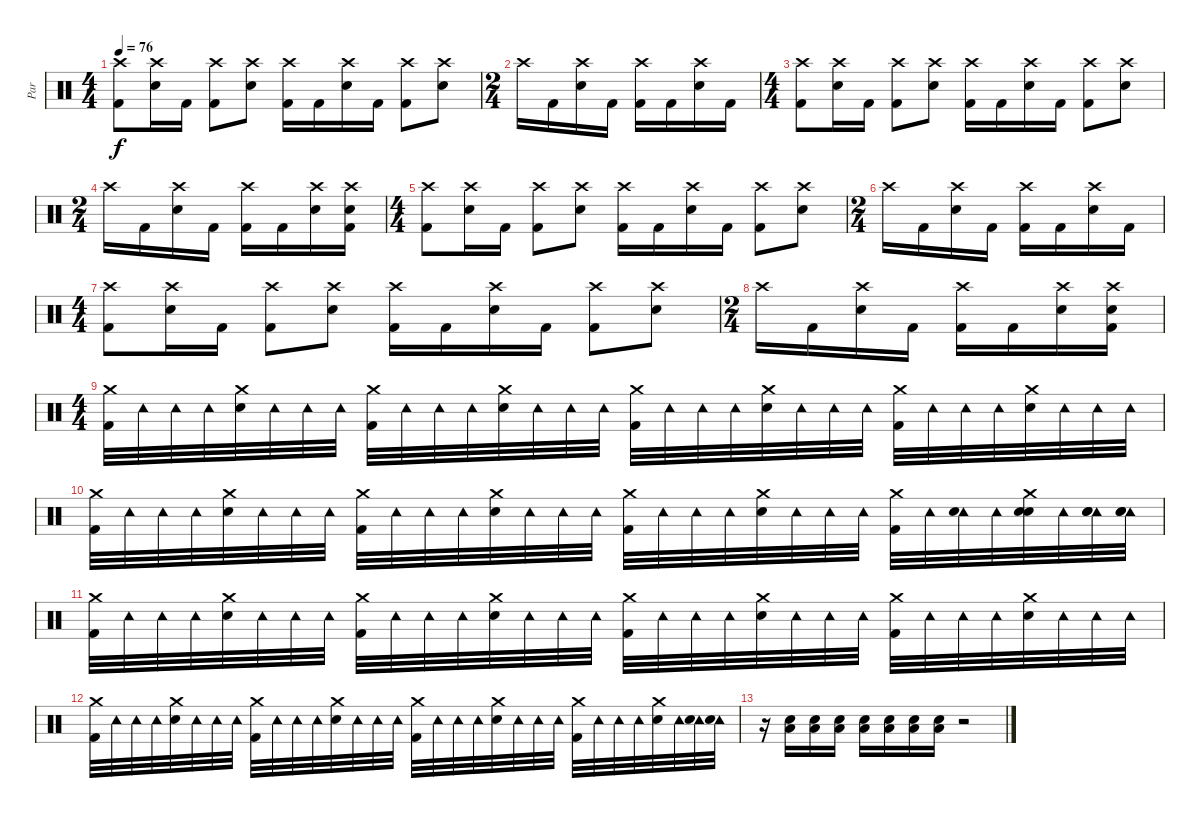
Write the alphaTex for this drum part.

\track ("Par" "Par") {instrument percussion}
\staff {score}
\articulation defaults
\ts (4 4)
\tempo 76
\clef neutral
\ks c
("Crash high (hit)" "Kick (hit) 2").8{dy f} ("Crash high (hit)" "Snare (hit) 2").16 "Kick (hit) 2".16 ("Crash high (hit)" "Kick (hit) 2").8 ("Crash high (hit)" "Snare (hit) 2").8 ("Crash high (hit)" "Kick (hit) 2").16 "Kick (hit) 2".16 ("Crash high (hit)" "Snare (hit) 2").16 "Kick (hit) 2".16 ("Crash high (hit)" "Kick (hit) 2").8 ("Crash high (hit)" "Snare (hit) 2").8 |
\ts (2 4)
"Crash high (hit)".16 "Kick (hit) 2".16 ("Crash high (hit)" "Snare (hit) 2").16 "Kick (hit) 2".16 ("Crash high (hit)" "Kick (hit) 2").16 "Kick (hit) 2".16 ("Crash high (hit)" "Snare (hit) 2").16 "Kick (hit) 2".16 |
\ts (4 4)
("Crash high (hit)" "Kick (hit) 2").8 ("Crash high (hit)" "Snare (hit) 2").16 "Kick (hit) 2".16 ("Crash high (hit)" "Kick (hit) 2").8 ("Crash high (hit)" "Snare (hit) 2").8 ("Crash high (hit)" "Kick (hit) 2").16 "Kick (hit) 2".16 ("Crash high (hit)" "Snare (hit) 2").16 "Kick (hit) 2".16 ("Crash high (hit)" "Kick (hit) 2").8 ("Crash high (hit)" "Snare (hit) 2").8 |
\ts (2 4)
"Crash high (hit)".16 "Kick (hit) 2".16 ("Crash high (hit)" "Snare (hit) 2").16 "Kick (hit) 2".16 ("Crash high (hit)" "Kick (hit) 2").16 "Kick (hit) 2".16 ("Crash high (hit)" "Snare (hit) 2").16 ("Crash high (hit)" "Snare (hit) 2" "Kick (hit) 2").16 |
\ts (4 4)
("Crash high (hit)" "Kick (hit) 2").8 ("Crash high (hit)" "Snare (hit) 2").16 "Kick (hit) 2".16 ("Crash high (hit)" "Kick (hit) 2").8 ("Crash high (hit)" "Snare (hit) 2").8 ("Crash high (hit)" "Kick (hit) 2").16 "Kick (hit) 2".16 ("Crash high (hit)" "Snare (hit) 2").16 "Kick (hit) 2".16 ("Crash high (hit)" "Kick (hit) 2").8 ("Crash high (hit)" "Snare (hit) 2").8 |
\ts (2 4)
"Crash high (hit)".16 "Kick (hit) 2".16 ("Crash high (hit)" "Snare (hit) 2").16 "Kick (hit) 2".16 ("Crash high (hit)" "Kick (hit) 2").16 "Kick (hit) 2".16 ("Crash high (hit)" "Snare (hit) 2").16 "Kick (hit) 2".16 |
\ts (4 4)
("Crash high (hit)" "Kick (hit) 2").8 ("Crash high (hit)" "Snare (hit) 2").16 "Kick (hit) 2".16 ("Crash high (hit)" "Kick (hit) 2").8 ("Crash high (hit)" "Snare (hit) 2").8 ("Crash high (hit)" "Kick (hit) 2").16 "Kick (hit) 2".16 ("Crash high (hit)" "Snare (hit) 2").16 "Kick (hit) 2".16 ("Crash high (hit)" "Kick (hit) 2").8 ("Crash high (hit)" "Snare (hit) 2").8 |
\ts (2 4)
"Crash high (hit)".16 "Kick (hit) 2".16 ("Crash high (hit)" "Snare (hit) 2").16 "Kick (hit) 2".16 ("Crash high (hit)" "Kick (hit) 2").16 "Kick (hit) 2".16 ("Crash high (hit)" "Snare (hit) 2").16 ("Crash high (hit)" "Snare (hit) 2" "Kick (hit) 2").16 |
\ts (4 4)
("Crash medium (hit)" "Kick (hit) 2").32 "Tambourine (hit)".32 "Tambourine (hit)".32 "Tambourine (hit)".32 ("Crash medium (hit)" "Snare (hit) 2").32 "Tambourine (hit)".32 "Tambourine (hit)".32 "Tambourine (hit)".32 ("Crash medium (hit)" "Kick (hit) 2").32 "Tambourine (hit)".32 "Tambourine (hit)".32 "Tambourine (hit)".32 ("Crash medium (hit)" "Snare (hit) 2").32 "Tambourine (hit)".32 "Tambourine (hit)".32 "Tambourine (hit)".32 ("Crash medium (hit)" "Kick (hit) 2").32 "Tambourine (hit)".32 "Tambourine (hit)".32 "Tambourine (hit)".32 ("Crash medium (hit)" "Snare (hit) 2").32 "Tambourine (hit)".32 "Tambourine (hit)".32 "Tambourine (hit)".32 ("Crash medium (hit)" "Kick (hit) 2").32 "Tambourine (hit)".32 "Tambourine (hit)".32 "Tambourine (hit)".32 ("Crash medium (hit)" "Snare (hit) 2").32 "Tambourine (hit)".32 "Tambourine (hit)".32 "Tambourine (hit)".32 |
("Crash medium (hit)" "Kick (hit) 2").32 "Tambourine (hit)".32 "Tambourine (hit)".32 "Tambourine (hit)".32 ("Crash medium (hit)" "Snare (hit) 2").32 "Tambourine (hit)".32 "Tambourine (hit)".32 "Tambourine (hit)".32 ("Crash medium (hit)" "Kick (hit) 2").32 "Tambourine (hit)".32 "Tambourine (hit)".32 "Tambourine (hit)".32 ("Crash medium (hit)" "Snare (hit) 2").32 "Tambourine (hit)".32 "Tambourine (hit)".32 "Tambourine (hit)".32 ("Crash medium (hit)" "Kick (hit) 2").32 "Tambourine (hit)".32 "Tambourine (hit)".32 "Tambourine (hit)".32 ("Crash medium (hit)" "Snare (hit) 2").32 "Tambourine (hit)".32 "Tambourine (hit)".32 "Tambourine (hit)".32 ("Crash medium (hit)" "Kick (hit) 2").32 "Tambourine (hit)".32 ("Tambourine (hit)" "Hand Clap (hit)").32 "Tambourine (hit)".32 ("Crash medium (hit)" "Hand Clap (hit)" "Snare (hit) 2").32 "Tambourine (hit)".32 ("Tambourine (hit)" "Hand Clap (hit)" "Snare (hit) 2").32 ("Tambourine (hit)" "Hand Clap (hit)" "Snare (hit) 2").32 |
("Crash medium (hit)" "Kick (hit) 2").32 "Tambourine (hit)".32 "Tambourine (hit)".32 "Tambourine (hit)".32 ("Crash medium (hit)" "Snare (hit) 2").32 "Tambourine (hit)".32 "Tambourine (hit)".32 "Tambourine (hit)".32 ("Crash medium (hit)" "Kick (hit) 2").32 "Tambourine (hit)".32 "Tambourine (hit)".32 "Tambourine (hit)".32 ("Crash medium (hit)" "Snare (hit) 2").32 "Tambourine (hit)".32 "Tambourine (hit)".32 "Tambourine (hit)".32 ("Crash medium (hit)" "Kick (hit) 2").32 "Tambourine (hit)".32 "Tambourine (hit)".32 "Tambourine (hit)".32 ("Crash medium (hit)" "Snare (hit) 2").32 "Tambourine (hit)".32 "Tambourine (hit)".32 "Tambourine (hit)".32 ("Crash medium (hit)" "Kick (hit) 2").32 "Tambourine (hit)".32 "Tambourine (hit)".32 "Tambourine (hit)".32 ("Crash medium (hit)" "Snare (hit) 2").32 "Tambourine (hit)".32 "Tambourine (hit)".32 "Tambourine (hit)".32 |
("Crash medium (hit)" "Kick (hit) 2").32 "Tambourine (hit)".32 "Tambourine (hit)".32 "Tambourine (hit)".32 ("Crash medium (hit)" "Snare (hit) 2").32 "Tambourine (hit)".32 "Tambourine (hit)".32 "Tambourine (hit)".32 ("Crash medium (hit)" "Kick (hit) 2").32 "Tambourine (hit)".32 "Tambourine (hit)".32 "Tambourine (hit)".32 ("Crash medium (hit)" "Snare (hit) 2").32 "Tambourine (hit)".32 "Tambourine (hit)".32 "Tambourine (hit)".32 ("Crash medium (hit)" "Kick (hit) 2").32 "Tambourine (hit)".32 "Tambourine (hit)".32 "Tambourine (hit)".32 ("Crash medium (hit)" "Snare (hit) 2").32 "Tambourine (hit)".32 "Tambourine (hit)".32 "Tambourine (hit)".32 ("Crash medium (hit)" "Kick (hit) 2").32 "Tambourine (hit)".32 "Tambourine (hit)".32 "Tambourine (hit)".32 ("Crash medium (hit)" "Snare (hit) 2").32 "Tambourine (hit)".32 ("Tambourine (hit)" "Hand Clap (hit)").32 ("Tambourine (hit)" "Hand Clap (hit)").32 |
r.16 ("Low Floor Tom (hit)" "Snare (hit) 2").16 ("Low Floor Tom (hit)" "Snare (hit) 2").16 ("Low Floor Tom (hit)" "Snare (hit) 2").16 ("Low Floor Tom (hit)" "Snare (hit) 2").16 ("Low Floor Tom (hit)" "Snare (hit) 2").16 ("Low Floor Tom (hit)" "Snare (hit) 2").16 ("Low Floor Tom (hit)" "Snare (hit) 2").16 r.2
